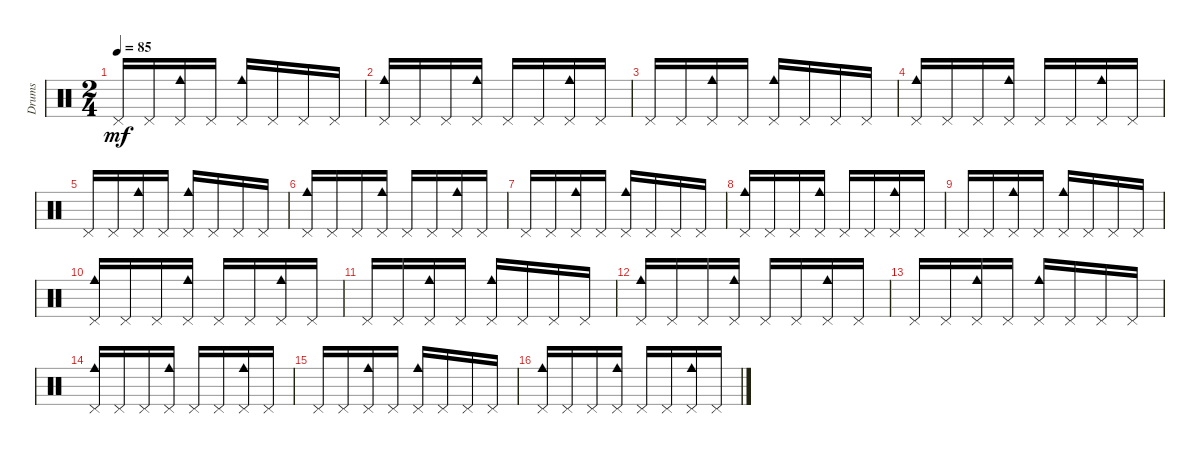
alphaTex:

\track ("Drums" "Drums") {instrument percussion}
\staff {score}
\articulation defaults
\ts (2 4)
\tempo 85
\clef neutral
\ks c "Pedal Hi-Hat (hit)".16{dy mf} "Pedal Hi-Hat (hit)".16
("Pedal Hi-Hat (hit)" "Cowbell medium (hit)").16 "Pedal Hi-Hat (hit)".16 ("Pedal Hi-Hat (hit)" "Cowbell medium (hit)").16 "Pedal Hi-Hat (hit)".16 "Pedal Hi-Hat (hit)".16 "Pedal Hi-Hat (hit)".16 |
("Pedal Hi-Hat (hit)" "Cowbell medium (hit)").16 "Pedal Hi-Hat (hit)".16 "Pedal Hi-Hat (hit)".16 ("Pedal Hi-Hat (hit)" "Cowbell medium (hit)").16 "Pedal Hi-Hat (hit)".16 "Pedal Hi-Hat (hit)".16 ("Pedal Hi-Hat (hit)" "Cowbell medium (hit)").16 "Pedal Hi-Hat (hit)".16 |
"Pedal Hi-Hat (hit)".16 "Pedal Hi-Hat (hit)".16 ("Pedal Hi-Hat (hit)" "Cowbell medium (hit)").16 "Pedal Hi-Hat (hit)".16 ("Pedal Hi-Hat (hit)" "Cowbell medium (hit)").16 "Pedal Hi-Hat (hit)".16 "Pedal Hi-Hat (hit)".16 "Pedal Hi-Hat (hit)".16 |
("Pedal Hi-Hat (hit)" "Cowbell medium (hit)").16 "Pedal Hi-Hat (hit)".16 "Pedal Hi-Hat (hit)".16 ("Pedal Hi-Hat (hit)" "Cowbell medium (hit)").16 "Pedal Hi-Hat (hit)".16 "Pedal Hi-Hat (hit)".16 ("Pedal Hi-Hat (hit)" "Cowbell medium (hit)").16 "Pedal Hi-Hat (hit)".16 |
"Pedal Hi-Hat (hit)".16 "Pedal Hi-Hat (hit)".16 ("Pedal Hi-Hat (hit)" "Cowbell medium (hit)").16 "Pedal Hi-Hat (hit)".16 ("Pedal Hi-Hat (hit)" "Cowbell medium (hit)").16 "Pedal Hi-Hat (hit)".16 "Pedal Hi-Hat (hit)".16 "Pedal Hi-Hat (hit)".16 |
("Pedal Hi-Hat (hit)" "Cowbell medium (hit)").16 "Pedal Hi-Hat (hit)".16 "Pedal Hi-Hat (hit)".16 ("Pedal Hi-Hat (hit)" "Cowbell medium (hit)").16 "Pedal Hi-Hat (hit)".16 "Pedal Hi-Hat (hit)".16 ("Pedal Hi-Hat (hit)" "Cowbell medium (hit)").16 "Pedal Hi-Hat (hit)".16 |
"Pedal Hi-Hat (hit)".16 "Pedal Hi-Hat (hit)".16 ("Pedal Hi-Hat (hit)" "Cowbell medium (hit)").16 "Pedal Hi-Hat (hit)".16 ("Pedal Hi-Hat (hit)" "Cowbell medium (hit)").16 "Pedal Hi-Hat (hit)".16 "Pedal Hi-Hat (hit)".16 "Pedal Hi-Hat (hit)".16 |
("Pedal Hi-Hat (hit)" "Cowbell medium (hit)").16 "Pedal Hi-Hat (hit)".16 "Pedal Hi-Hat (hit)".16 ("Pedal Hi-Hat (hit)" "Cowbell medium (hit)").16 "Pedal Hi-Hat (hit)".16 "Pedal Hi-Hat (hit)".16 ("Pedal Hi-Hat (hit)" "Cowbell medium (hit)").16 "Pedal Hi-Hat (hit)".16 |
"Pedal Hi-Hat (hit)".16 "Pedal Hi-Hat (hit)".16 ("Pedal Hi-Hat (hit)" "Cowbell medium (hit)").16 "Pedal Hi-Hat (hit)".16 ("Pedal Hi-Hat (hit)" "Cowbell medium (hit)").16 "Pedal Hi-Hat (hit)".16 "Pedal Hi-Hat (hit)".16 "Pedal Hi-Hat (hit)".16 |
("Pedal Hi-Hat (hit)" "Cowbell medium (hit)").16 "Pedal Hi-Hat (hit)".16 "Pedal Hi-Hat (hit)".16 ("Pedal Hi-Hat (hit)" "Cowbell medium (hit)").16 "Pedal Hi-Hat (hit)".16 "Pedal Hi-Hat (hit)".16 ("Pedal Hi-Hat (hit)" "Cowbell medium (hit)").16 "Pedal Hi-Hat (hit)".16 |
"Pedal Hi-Hat (hit)".16 "Pedal Hi-Hat (hit)".16 ("Pedal Hi-Hat (hit)" "Cowbell medium (hit)").16 "Pedal Hi-Hat (hit)".16 ("Pedal Hi-Hat (hit)" "Cowbell medium (hit)").16 "Pedal Hi-Hat (hit)".16 "Pedal Hi-Hat (hit)".16 "Pedal Hi-Hat (hit)".16 |
("Pedal Hi-Hat (hit)" "Cowbell medium (hit)").16 "Pedal Hi-Hat (hit)".16 "Pedal Hi-Hat (hit)".16 ("Pedal Hi-Hat (hit)" "Cowbell medium (hit)").16 "Pedal Hi-Hat (hit)".16 "Pedal Hi-Hat (hit)".16 ("Pedal Hi-Hat (hit)" "Cowbell medium (hit)").16 "Pedal Hi-Hat (hit)".16 |
"Pedal Hi-Hat (hit)".16 "Pedal Hi-Hat (hit)".16 ("Pedal Hi-Hat (hit)" "Cowbell medium (hit)").16 "Pedal Hi-Hat (hit)".16 ("Pedal Hi-Hat (hit)" "Cowbell medium (hit)").16 "Pedal Hi-Hat (hit)".16 "Pedal Hi-Hat (hit)".16 "Pedal Hi-Hat (hit)".16 |
("Pedal Hi-Hat (hit)" "Cowbell medium (hit)").16 "Pedal Hi-Hat (hit)".16 "Pedal Hi-Hat (hit)".16 ("Pedal Hi-Hat (hit)" "Cowbell medium (hit)").16 "Pedal Hi-Hat (hit)".16 "Pedal Hi-Hat (hit)".16 ("Pedal Hi-Hat (hit)" "Cowbell medium (hit)").16 "Pedal Hi-Hat (hit)".16 |
"Pedal Hi-Hat (hit)".16 "Pedal Hi-Hat (hit)".16 ("Pedal Hi-Hat (hit)" "Cowbell medium (hit)").16 "Pedal Hi-Hat (hit)".16 ("Pedal Hi-Hat (hit)" "Cowbell medium (hit)").16 "Pedal Hi-Hat (hit)".16 "Pedal Hi-Hat (hit)".16 "Pedal Hi-Hat (hit)".16 |
("Pedal Hi-Hat (hit)" "Cowbell medium (hit)").16 "Pedal Hi-Hat (hit)".16 "Pedal Hi-Hat (hit)".16 ("Pedal Hi-Hat (hit)" "Cowbell medium (hit)").16 "Pedal Hi-Hat (hit)".16 "Pedal Hi-Hat (hit)".16 ("Cowbell medium (hit)" "Pedal Hi-Hat (hit)").16 "Pedal Hi-Hat (hit)".16
